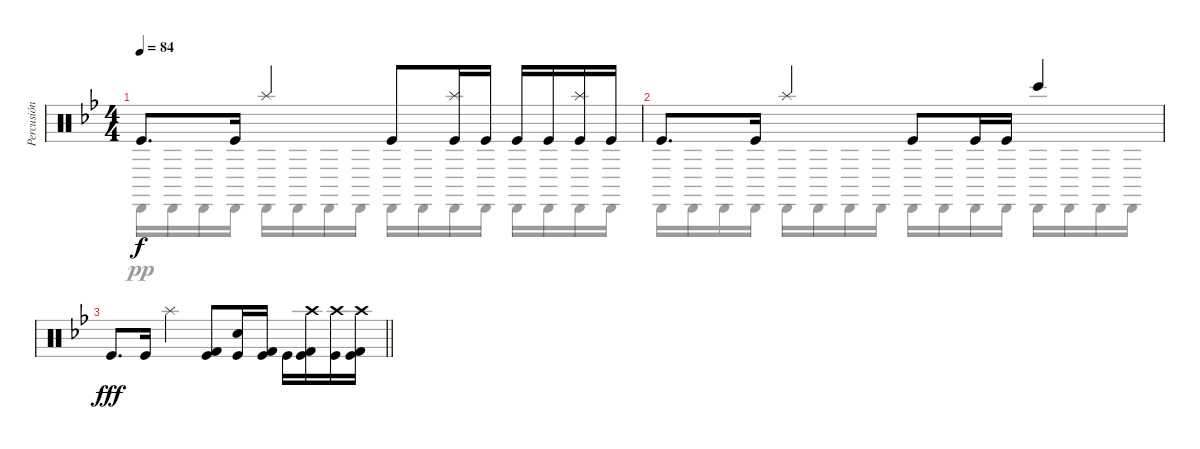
\track ("Percusión" "Percusión") {instrument percussion}
\staff {score}
\articulation defaults
\voice
\ts (4 4)
\tempo 84
\clef neutral
\ks bb "Kick (hit)".8{d dy f} "Kick (hit)".16 "Splash (hit)".4 "Kick (hit)".8
("Splash (hit)" "Kick (hit)").16 "Kick (hit)".16 "Kick (hit)".16 "Kick (hit)".16 ("Splash (hit)" "Kick (hit)").16 "Kick (hit)".16 |
"Kick (hit)".8{d} "Kick (hit)".16 "Splash (hit)".4 "Kick (hit)".8 "Kick (hit)".16 "Kick (hit)".16 "Bongo High (hit)".4 |
\barLineRight lightlight "Kick (hit)".8{d dy fff} "Kick (hit)".16 "Splash (hit)".4
("Kick (hit) 2" "Kick (hit)").8 ("Snare (hit) 2" "Kick (hit)").16 ("Kick (hit) 2" "Kick (hit)").16 "Kick (hit)".16 ("Crash high (hit)" "Kick (hit) 2" "Kick (hit)").16 ("Crash high (hit)" "Kick (hit)").16 ("Crash high (hit)" "Kick (hit) 2" "Kick (hit)").16
\voice
\clef neutral
\ottava regular
\simile none
\ks bb "Cabasa (hit)".16{dy pp} "Cabasa (hit)".16 "Cabasa (hit)".16 "Cabasa (hit)".16 "Cabasa (hit)".16 "Cabasa (hit)".16 "Cabasa (hit)".16 "Cabasa (hit)".16 "Cabasa (hit)".16 "Cabasa (hit)".16 "Cabasa (hit)".16 "Cabasa (hit)".16 "Cabasa (hit)".16 "Cabasa (hit)".16 "Cabasa (hit)".16 "Cabasa (hit)".16
|
"Cabasa (hit)".16 "Cabasa (hit)".16 "Cabasa (hit)".16 "Cabasa (hit)".16 "Cabasa (hit)".16 "Cabasa (hit)".16 "Cabasa (hit)".16 "Cabasa (hit)".16 "Cabasa (hit)".16 "Cabasa (hit)".16 "Cabasa (hit)".16 "Cabasa (hit)".16 "Cabasa (hit)".16 "Cabasa (hit)".16 "Cabasa (hit)".16 "Cabasa (hit)".16 |
\barLineRight lightlight
